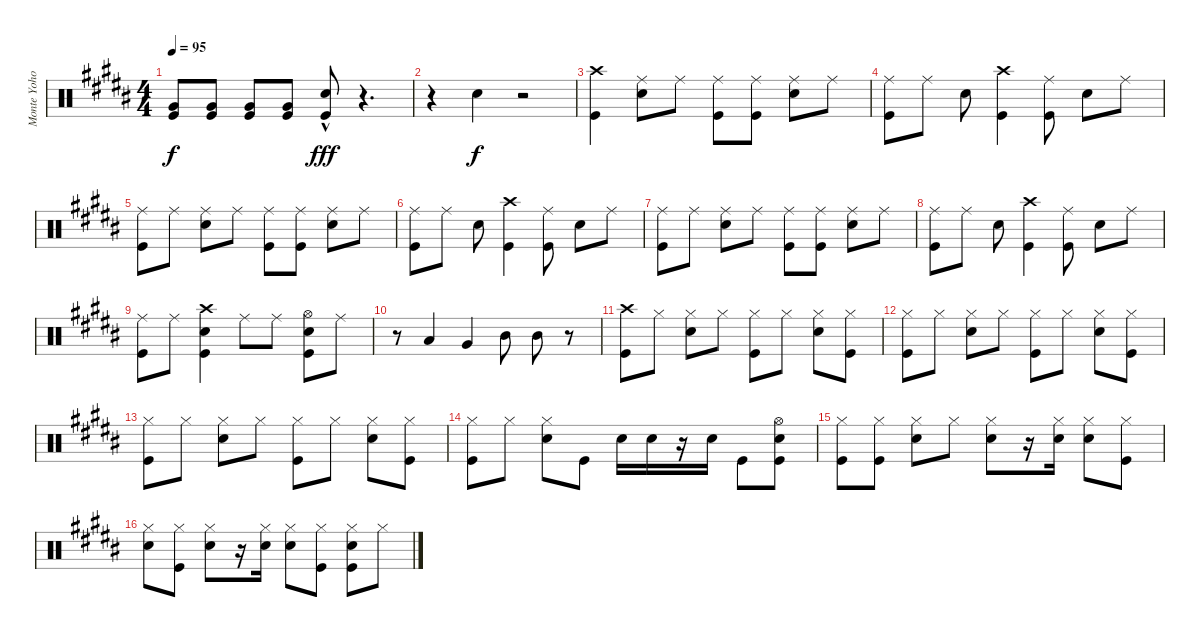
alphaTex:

\track ("Monte Yoho Drums" "Monte Yoho") {instrument percussion}
\staff {score}
\articulation defaults
\ts (4 4)
\tempo 95
\clef neutral
\ks g#minor
("Very Low Tom (hit)" "Kick (hit)").8{dy f volume 12} ("Very Low Tom (hit)" "Kick (hit)").8 ("Very Low Tom (hit)" "Kick (hit)").8 ("Very Low Tom (hit)" "Kick (hit)").8 ("Snare (hit) 2"{hac} "Kick (hit)").8{dy fff} r.4{d} |
r.4 "Snare (hit) 2".4{dy f} r.2 |
("Crash high (hit)" "Kick (hit)").4{volume 13} ("Ride (middle)" "Snare (hit) 2").8 "Ride (middle)".8 ("Ride (middle)" "Kick (hit)").8 ("Ride (middle)" "Kick (hit)").8 ("Ride (middle)" "Snare (hit) 2").8 "Ride (middle)".8 |
("Ride (middle)" "Kick (hit)").8 "Ride (middle)".8 "Snare (hit) 2".8 ("Crash high (hit)" "Kick (hit)").4 ("Ride (middle)" "Kick (hit)").8 "Snare (hit) 2".8 "Ride (middle)".8 |
("Ride (middle)" "Kick (hit)").8 "Ride (middle)".8 ("Ride (middle)" "Snare (hit) 2").8 "Ride (middle)".8 ("Ride (middle)" "Kick (hit)").8 ("Ride (middle)" "Kick (hit)").8 ("Ride (middle)" "Snare (hit) 2").8 "Ride (middle)".8 |
("Ride (middle)" "Kick (hit)").8 "Ride (middle)".8 "Snare (hit) 2".8 ("Crash high (hit)" "Kick (hit)").4 ("Ride (middle)" "Kick (hit)").8 "Snare (hit) 2".8 "Ride (middle)".8 |
("Ride (middle)" "Kick (hit)").8 "Ride (middle)".8 ("Ride (middle)" "Snare (hit) 2").8 "Ride (middle)".8 ("Ride (middle)" "Kick (hit)").8 ("Ride (middle)" "Kick (hit)").8 ("Ride (middle)" "Snare (hit) 2").8 "Ride (middle)".8 |
("Ride (middle)" "Kick (hit)").8 "Ride (middle)".8 "Snare (hit) 2".8 ("Crash high (hit)" "Kick (hit)").4 ("Ride (middle)" "Kick (hit)").8 "Snare (hit) 2".8 "Ride (middle)".8 |
("Ride (middle)" "Kick (hit)").8 "Ride (middle)".8 ("Crash high (hit)" "Snare (hit) 2" "Kick (hit)").4 "Ride (middle)".8 "Ride (middle)".8 ("Hi-Hat (open)" "Snare (hit) 2" "Kick (hit)").8 "Ride (middle)".8 |
r.8 "Low Tom (hit)".4 "Very Low Tom (hit)".4 "Mid Tom (hit)".8 "Mid Tom (hit)".8 r.8 |
("Crash high (hit)" "Kick (hit)").8{volume 10} "Hi-Hat (closed)".8{volume 9} ("Hi-Hat (closed)" "Snare (hit) 2").8 "Hi-Hat (closed)".8 ("Hi-Hat (closed)" "Kick (hit)").8 "Hi-Hat (closed)".8 ("Hi-Hat (closed)" "Snare (hit) 2").8 ("Hi-Hat (closed)" "Kick (hit)").8 |
("Hi-Hat (closed)" "Kick (hit)").8 "Hi-Hat (closed)".8 ("Hi-Hat (closed)" "Snare (hit) 2").8 "Hi-Hat (closed)".8 ("Hi-Hat (closed)" "Kick (hit)").8 "Hi-Hat (closed)".8 ("Hi-Hat (closed)" "Snare (hit) 2").8 ("Hi-Hat (closed)" "Kick (hit)").8 |
("Hi-Hat (closed)" "Kick (hit)").8 "Hi-Hat (closed)".8 ("Hi-Hat (closed)" "Snare (hit) 2").8 "Hi-Hat (closed)".8 ("Hi-Hat (closed)" "Kick (hit)").8 "Hi-Hat (closed)".8 ("Hi-Hat (closed)" "Snare (hit) 2").8 ("Hi-Hat (closed)" "Kick (hit)").8 |
("Hi-Hat (closed)" "Kick (hit)").8 "Hi-Hat (closed)".8 ("Hi-Hat (closed)" "Snare (hit) 2").8 "Kick (hit)".8 "Snare (hit) 2".16 "Snare (hit) 2".16 r.16 "Snare (hit) 2".16 "Kick (hit)".8 ("Hi-Hat (open)" "Snare (hit) 2" "Kick (hit)").8 |
("Hi-Hat (closed)" "Kick (hit)").8 ("Hi-Hat (closed)" "Kick (hit)").8 ("Hi-Hat (closed)" "Snare (hit) 2").8 "Hi-Hat (closed)".8 ("Hi-Hat (closed)" "Snare (hit) 2").8 r.16 ("Hi-Hat (closed)" "Snare (hit) 2").16 ("Hi-Hat (closed)" "Snare (hit) 2").8 ("Hi-Hat (closed)" "Kick (hit)").8 |
("Hi-Hat (closed)" "Snare (hit) 2").8 ("Hi-Hat (closed)" "Kick (hit)").8 ("Hi-Hat (closed)" "Snare (hit) 2").8 r.16 ("Hi-Hat (closed)" "Snare (hit) 2").16 ("Hi-Hat (closed)" "Snare (hit) 2").8 ("Hi-Hat (closed)" "Kick (hit)").8 ("Hi-Hat (closed)" "Snare (hit) 2" "Kick (hit)").8 "Hi-Hat (closed)".8
